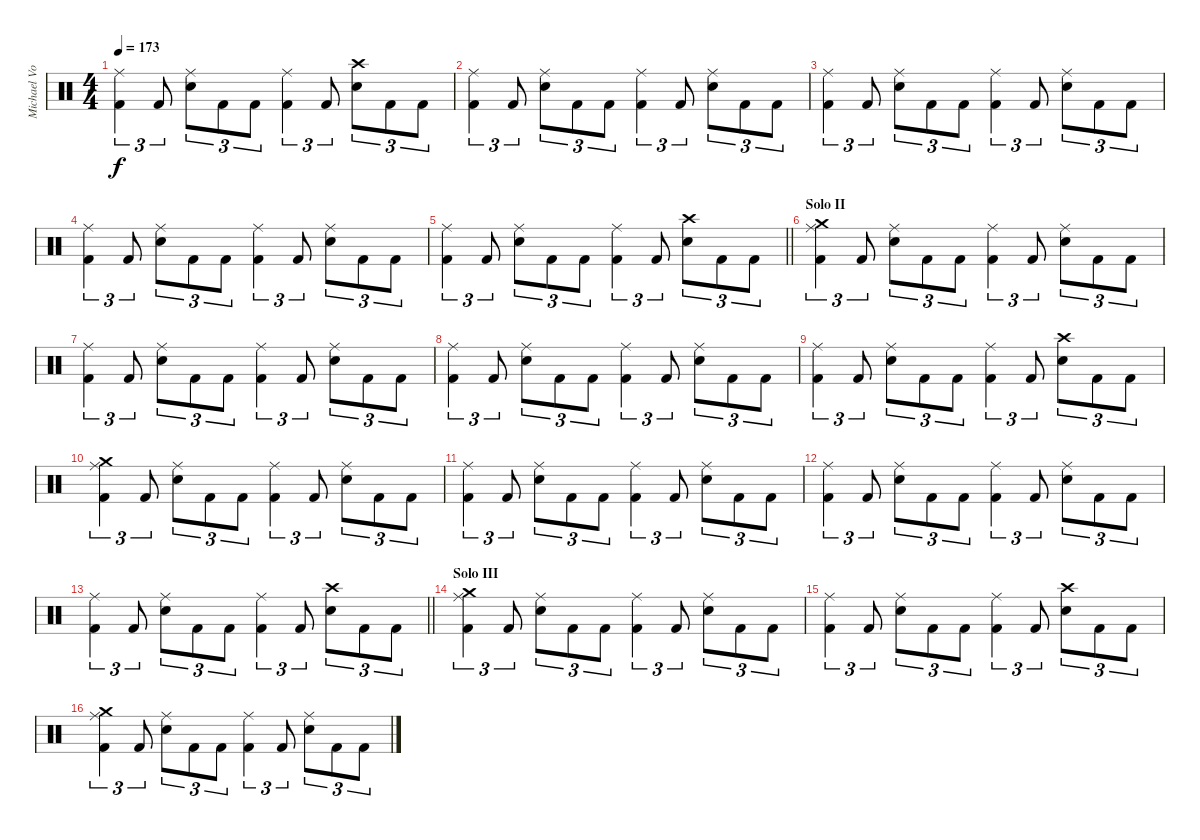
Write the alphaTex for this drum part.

\track ("Michael Von Knorring " "Michael Vo") {instrument percussion}
\staff {score}
\articulation defaults
\ts (4 4)
\tempo 173
\clef neutral
\ks c
("Ride (middle)" "Kick (hit) 2").4{tu (3 2) dy f} "Kick (hit) 2".8{tu (3 2)} ("Ride (middle)" "Snare (hit) 2").8{tu (3 2)} "Kick (hit) 2".8{tu (3 2)} "Kick (hit) 2".8{tu (3 2)} ("Ride (middle)" "Kick (hit) 2").4{tu (3 2)} "Kick (hit) 2".8{tu (3 2)} ("Crash high (hit)" "Snare (hit) 2").8{tu (3 2)} "Kick (hit) 2".8{tu (3 2)} "Kick (hit) 2".8{tu (3 2)} |
("Ride (middle)" "Kick (hit) 2").4{tu (3 2)} "Kick (hit) 2".8{tu (3 2)} ("Ride (middle)" "Snare (hit) 2").8{tu (3 2)} "Kick (hit) 2".8{tu (3 2)} "Kick (hit) 2".8{tu (3 2)} ("Ride (middle)" "Kick (hit) 2").4{tu (3 2)} "Kick (hit) 2".8{tu (3 2)} ("Ride (middle)" "Snare (hit) 2").8{tu (3 2)} "Kick (hit) 2".8{tu (3 2)} "Kick (hit) 2".8{tu (3 2)} |
("Ride (middle)" "Kick (hit) 2").4{tu (3 2)} "Kick (hit) 2".8{tu (3 2)} ("Ride (middle)" "Snare (hit) 2").8{tu (3 2)} "Kick (hit) 2".8{tu (3 2)} "Kick (hit) 2".8{tu (3 2)} ("Ride (middle)" "Kick (hit) 2").4{tu (3 2)} "Kick (hit) 2".8{tu (3 2)} ("Ride (middle)" "Snare (hit) 2").8{tu (3 2)} "Kick (hit) 2".8{tu (3 2)} "Kick (hit) 2".8{tu (3 2)} |
("Ride (middle)" "Kick (hit) 2").4{tu (3 2)} "Kick (hit) 2".8{tu (3 2)} ("Ride (middle)" "Snare (hit) 2").8{tu (3 2)} "Kick (hit) 2".8{tu (3 2)} "Kick (hit) 2".8{tu (3 2)} ("Ride (middle)" "Kick (hit) 2").4{tu (3 2)} "Kick (hit) 2".8{tu (3 2)} ("Ride (middle)" "Snare (hit) 2").8{tu (3 2)} "Kick (hit) 2".8{tu (3 2)} "Kick (hit) 2".8{tu (3 2)} |
\barLineRight lightlight
("Ride (middle)" "Kick (hit) 2").4{tu (3 2)} "Kick (hit) 2".8{tu (3 2)} ("Ride (middle)" "Snare (hit) 2").8{tu (3 2)} "Kick (hit) 2".8{tu (3 2)} "Kick (hit) 2".8{tu (3 2)} ("Ride (middle)" "Kick (hit) 2").4{tu (3 2)} "Kick (hit) 2".8{tu (3 2)} ("Crash high (hit)" "Snare (hit) 2").8{tu (3 2)} "Kick (hit) 2".8{tu (3 2)} "Kick (hit) 2".8{tu (3 2)} |
\section ("" "Solo II")
("Crash medium (hit)" "Ride (middle)" "Kick (hit) 2").4{tu (3 2)} "Kick (hit) 2".8{tu (3 2)} ("Ride (middle)" "Snare (hit) 2").8{tu (3 2)} "Kick (hit) 2".8{tu (3 2)} "Kick (hit) 2".8{tu (3 2)} ("Ride (middle)" "Kick (hit) 2").4{tu (3 2)} "Kick (hit) 2".8{tu (3 2)} ("Ride (middle)" "Snare (hit) 2").8{tu (3 2)} "Kick (hit) 2".8{tu (3 2)} "Kick (hit) 2".8{tu (3 2)} |
("Ride (middle)" "Kick (hit) 2").4{tu (3 2)} "Kick (hit) 2".8{tu (3 2)} ("Ride (middle)" "Snare (hit) 2").8{tu (3 2)} "Kick (hit) 2".8{tu (3 2)} "Kick (hit) 2".8{tu (3 2)} ("Ride (middle)" "Kick (hit) 2").4{tu (3 2)} "Kick (hit) 2".8{tu (3 2)} ("Ride (middle)" "Snare (hit) 2").8{tu (3 2)} "Kick (hit) 2".8{tu (3 2)} "Kick (hit) 2".8{tu (3 2)} |
("Ride (middle)" "Kick (hit) 2").4{tu (3 2)} "Kick (hit) 2".8{tu (3 2)} ("Ride (middle)" "Snare (hit) 2").8{tu (3 2)} "Kick (hit) 2".8{tu (3 2)} "Kick (hit) 2".8{tu (3 2)} ("Ride (middle)" "Kick (hit) 2").4{tu (3 2)} "Kick (hit) 2".8{tu (3 2)} ("Ride (middle)" "Snare (hit) 2").8{tu (3 2)} "Kick (hit) 2".8{tu (3 2)} "Kick (hit) 2".8{tu (3 2)} |
("Ride (middle)" "Kick (hit) 2").4{tu (3 2)} "Kick (hit) 2".8{tu (3 2)} ("Ride (middle)" "Snare (hit) 2").8{tu (3 2)} "Kick (hit) 2".8{tu (3 2)} "Kick (hit) 2".8{tu (3 2)} ("Ride (middle)" "Kick (hit) 2").4{tu (3 2)} "Kick (hit) 2".8{tu (3 2)} ("Crash high (hit)" "Snare (hit) 2").8{tu (3 2)} "Kick (hit) 2".8{tu (3 2)} "Kick (hit) 2".8{tu (3 2)} |
("Crash medium (hit)" "Ride (middle)" "Kick (hit) 2").4{tu (3 2)} "Kick (hit) 2".8{tu (3 2)} ("Ride (middle)" "Snare (hit) 2").8{tu (3 2)} "Kick (hit) 2".8{tu (3 2)} "Kick (hit) 2".8{tu (3 2)} ("Ride (middle)" "Kick (hit) 2").4{tu (3 2)} "Kick (hit) 2".8{tu (3 2)} ("Ride (middle)" "Snare (hit) 2").8{tu (3 2)} "Kick (hit) 2".8{tu (3 2)} "Kick (hit) 2".8{tu (3 2)} |
("Ride (middle)" "Kick (hit) 2").4{tu (3 2)} "Kick (hit) 2".8{tu (3 2)} ("Ride (middle)" "Snare (hit) 2").8{tu (3 2)} "Kick (hit) 2".8{tu (3 2)} "Kick (hit) 2".8{tu (3 2)} ("Ride (middle)" "Kick (hit) 2").4{tu (3 2)} "Kick (hit) 2".8{tu (3 2)} ("Ride (middle)" "Snare (hit) 2").8{tu (3 2)} "Kick (hit) 2".8{tu (3 2)} "Kick (hit) 2".8{tu (3 2)} |
("Ride (middle)" "Kick (hit) 2").4{tu (3 2)} "Kick (hit) 2".8{tu (3 2)} ("Ride (middle)" "Snare (hit) 2").8{tu (3 2)} "Kick (hit) 2".8{tu (3 2)} "Kick (hit) 2".8{tu (3 2)} ("Ride (middle)" "Kick (hit) 2").4{tu (3 2)} "Kick (hit) 2".8{tu (3 2)} ("Ride (middle)" "Snare (hit) 2").8{tu (3 2)} "Kick (hit) 2".8{tu (3 2)} "Kick (hit) 2".8{tu (3 2)} |
\barLineRight lightlight
("Ride (middle)" "Kick (hit) 2").4{tu (3 2)} "Kick (hit) 2".8{tu (3 2)} ("Ride (middle)" "Snare (hit) 2").8{tu (3 2)} "Kick (hit) 2".8{tu (3 2)} "Kick (hit) 2".8{tu (3 2)} ("Ride (middle)" "Kick (hit) 2").4{tu (3 2)} "Kick (hit) 2".8{tu (3 2)} ("Crash high (hit)" "Snare (hit) 2").8{tu (3 2)} "Kick (hit) 2".8{tu (3 2)} "Kick (hit) 2".8{tu (3 2)} |
\section ("" "Solo III")
("Crash medium (hit)" "Ride (middle)" "Kick (hit) 2").4{tu (3 2)} "Kick (hit) 2".8{tu (3 2)} ("Ride (middle)" "Snare (hit) 2").8{tu (3 2)} "Kick (hit) 2".8{tu (3 2)} "Kick (hit) 2".8{tu (3 2)} ("Ride (middle)" "Kick (hit) 2").4{tu (3 2)} "Kick (hit) 2".8{tu (3 2)} ("Ride (middle)" "Snare (hit) 2").8{tu (3 2)} "Kick (hit) 2".8{tu (3 2)} "Kick (hit) 2".8{tu (3 2)} |
("Ride (middle)" "Kick (hit) 2").4{tu (3 2)} "Kick (hit) 2".8{tu (3 2)} ("Ride (middle)" "Snare (hit) 2").8{tu (3 2)} "Kick (hit) 2".8{tu (3 2)} "Kick (hit) 2".8{tu (3 2)} ("Ride (middle)" "Kick (hit) 2").4{tu (3 2)} "Kick (hit) 2".8{tu (3 2)} ("Crash high (hit)" "Snare (hit) 2").8{tu (3 2)} "Kick (hit) 2".8{tu (3 2)} "Kick (hit) 2".8{tu (3 2)} |
("Crash medium (hit)" "Ride (middle)" "Kick (hit) 2").4{tu (3 2)} "Kick (hit) 2".8{tu (3 2)} ("Ride (middle)" "Snare (hit) 2").8{tu (3 2)} "Kick (hit) 2".8{tu (3 2)} "Kick (hit) 2".8{tu (3 2)} ("Ride (middle)" "Kick (hit) 2").4{tu (3 2)} "Kick (hit) 2".8{tu (3 2)} ("Ride (middle)" "Snare (hit) 2").8{tu (3 2)} "Kick (hit) 2".8{tu (3 2)} "Kick (hit) 2".8{tu (3 2)}
